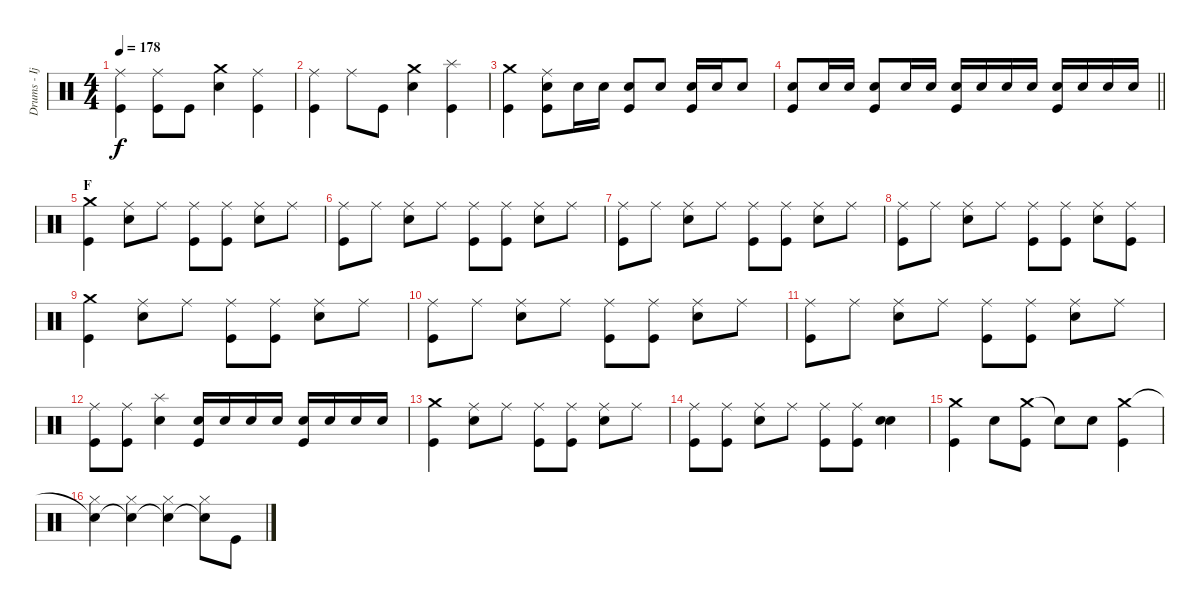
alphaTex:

\track ("Drums - Ijichi" "Drums - Ij") {instrument percussion}
\staff {score}
\articulation defaults
\ts (4 4)
\tempo 178
\clef neutral
\ks c
("Ride (middle)" "Kick (hit)").4{dy f} ("Ride (middle)" "Kick (hit)").8 "Kick (hit)".8 ("Crash medium (hit)" "Electric Snare (hit)").4 ("Ride (middle)" "Kick (hit)").4 |
("Ride (middle)" "Kick (hit)").4 "Ride (middle)".8 "Kick (hit)".8 ("Crash medium (hit)" "Electric Snare (hit)").4 ("Splash (hit)" "Kick (hit)").4 |
("Crash medium (hit)" "Kick (hit)").4 ("Ride (middle)" "Electric Snare (hit)" "Kick (hit)").8 "Electric Snare (hit)".16 "Electric Snare (hit)".16 ("Electric Snare (hit)" "Kick (hit)").8 "Electric Snare (hit)".8 ("Electric Snare (hit)" "Kick (hit)").16 "Electric Snare (hit)".16 "Electric Snare (hit)".8 |
\barLineRight lightlight
("Electric Snare (hit)" "Kick (hit)").8 "Electric Snare (hit)".16 "Electric Snare (hit)".16 ("Electric Snare (hit)" "Kick (hit)").8 "Electric Snare (hit)".16 "Electric Snare (hit)".16 ("Electric Snare (hit)" "Kick (hit)").16 "Electric Snare (hit)".16 "Electric Snare (hit)".16 "Electric Snare (hit)".16 ("Electric Snare (hit)" "Kick (hit)").16 "Electric Snare (hit)".16 "Electric Snare (hit)".16 "Electric Snare (hit)".16 |
\section ("" "F")
("Crash medium (hit)" "Kick (hit)").4 ("Ride (middle)" "Electric Snare (hit)").8 "Ride (middle)".8 ("Ride (middle)" "Kick (hit)").8 ("Ride (middle)" "Kick (hit)").8 ("Ride (middle)" "Electric Snare (hit)").8 "Ride (middle)".8 |
("Ride (middle)" "Kick (hit)").8 "Ride (middle)".8 ("Ride (middle)" "Electric Snare (hit)").8 "Ride (middle)".8 ("Ride (middle)" "Kick (hit)").8 ("Ride (middle)" "Kick (hit)").8 ("Ride (middle)" "Electric Snare (hit)").8 "Ride (middle)".8 |
("Ride (middle)" "Kick (hit)").8 "Ride (middle)".8 ("Ride (middle)" "Electric Snare (hit)").8 "Ride (middle)".8 ("Ride (middle)" "Kick (hit)").8 ("Ride (middle)" "Kick (hit)").8 ("Ride (middle)" "Electric Snare (hit)").8 "Ride (middle)".8 |
("Ride (middle)" "Kick (hit)").8 "Ride (middle)".8 ("Ride (middle)" "Electric Snare (hit)").8 "Ride (middle)".8 ("Ride (middle)" "Kick (hit)").8 ("Ride (middle)" "Kick (hit)").8 ("Ride (middle)" "Electric Snare (hit)").8 ("Ride (middle)" "Kick (hit)").8 |
("Crash medium (hit)" "Kick (hit)").4 ("Ride (middle)" "Electric Snare (hit)").8 "Ride (middle)".8 ("Ride (middle)" "Kick (hit)").8 ("Ride (middle)" "Kick (hit)").8 ("Ride (middle)" "Electric Snare (hit)").8 "Ride (middle)".8 |
("Ride (middle)" "Kick (hit)").8 "Ride (middle)".8 ("Ride (middle)" "Electric Snare (hit)").8 "Ride (middle)".8 ("Ride (middle)" "Kick (hit)").8 ("Ride (middle)" "Kick (hit)").8 ("Ride (middle)" "Electric Snare (hit)").8 "Ride (middle)".8 |
("Ride (middle)" "Kick (hit)").8 "Ride (middle)".8 ("Ride (middle)" "Electric Snare (hit)").8 "Ride (middle)".8 ("Ride (middle)" "Kick (hit)").8 ("Ride (middle)" "Kick (hit)").8 ("Ride (middle)" "Electric Snare (hit)").8 "Ride (middle)".8 |
("Ride (middle)" "Kick (hit)").8 ("Ride (middle)" "Kick (hit)").8 ("Splash (hit)" "Electric Snare (hit)").4 ("Electric Snare (hit)" "Kick (hit)").16 "Electric Snare (hit)".16 "Electric Snare (hit)".16 "Electric Snare (hit)".16 ("Electric Snare (hit)" "Kick (hit)").16 "Electric Snare (hit)".16 "Electric Snare (hit)".16 "Electric Snare (hit)".16 |
("Crash medium (hit)" "Kick (hit)").4 ("Ride (middle)" "Electric Snare (hit)").8 "Ride (middle)".8 ("Ride (middle)" "Kick (hit)").8 ("Ride (middle)" "Kick (hit)").8 ("Ride (middle)" "Electric Snare (hit)").8 "Ride (middle)".8 |
("Ride (middle)" "Kick (hit)").8 ("Ride (middle)" "Kick (hit)").8 ("Ride (middle)" "Electric Snare (hit)").8 "Ride (middle)".8 ("Ride (middle)" "Kick (hit)").8 ("Ride (middle)" "Kick (hit)").8 ("Electric Snare (hit)" "Electric Snare (hit)").4 |
("Crash medium (hit)" "Kick (hit)").4 "Electric Snare (hit)".8 ("Crash medium (hit)" "Kick (hit)").8 "Snare (hit)"{t}.8 "Electric Snare (hit)".8 ("Crash medium (hit)" "Kick (hit)").4 |
("Snare (hit)"{t} "Hi-Hat (closed)").4 ("Snare (hit)"{t} "Hi-Hat (closed)").4 ("Snare (hit)"{t} "Hi-Hat (closed)").4 ("Snare (hit)"{t} "Hi-Hat (closed)").8 "Kick (hit)".8
